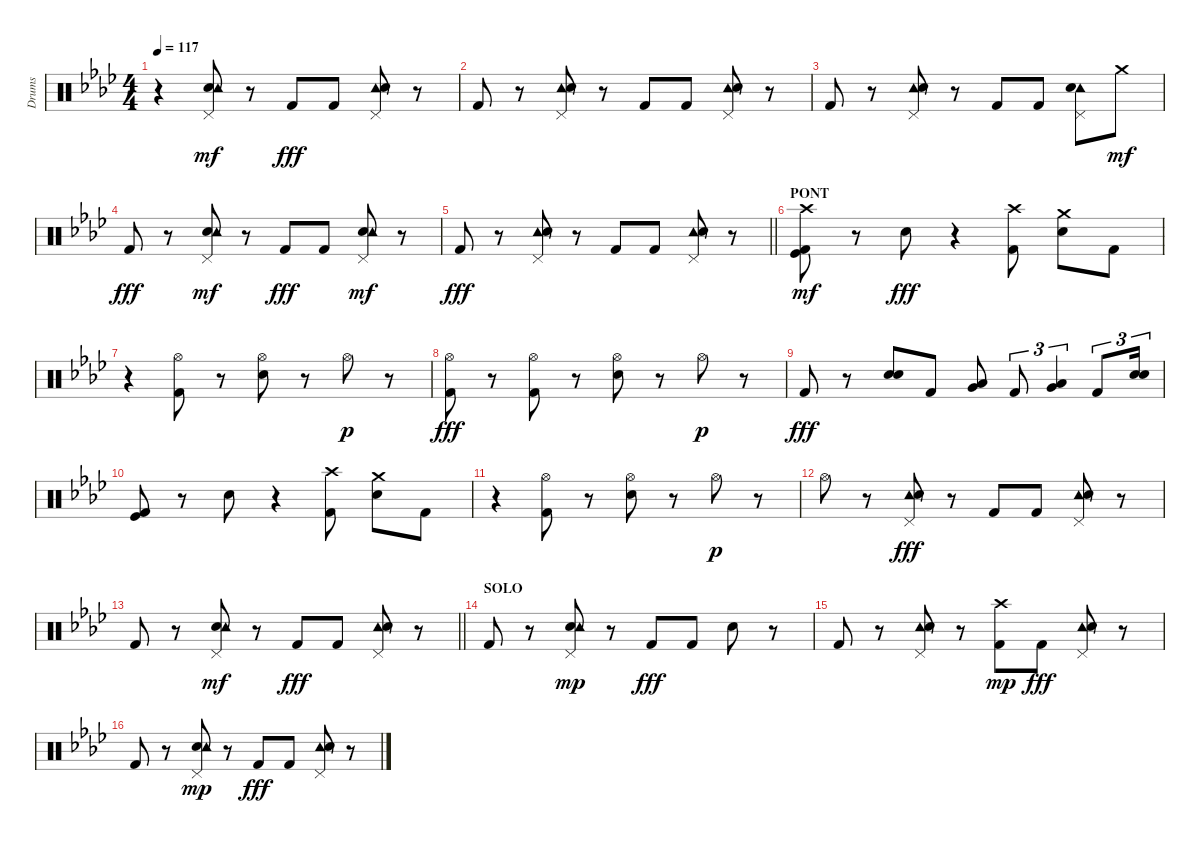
\track ("Drums" "Drums") {instrument percussion}
\staff {score}
\articulation defaults
\ts (4 4)
\tempo 117
\clef neutral
\ks ab
r.4{dy fff} ("Snare (hit) 2" "Tambourine (hit)" "Pedal Hi-Hat (hit)").8{dy mf} r.8 "Kick (hit) 2".8{dy fff} "Kick (hit) 2".8 ("Tambourine (hit)" "Pedal Hi-Hat (hit)" "Snare (hit) 2").8 r.8 |
"Kick (hit) 2".8 r.8 ("Tambourine (hit)" "Pedal Hi-Hat (hit)" "Snare (hit) 2").8 r.8 "Kick (hit) 2".8 "Kick (hit) 2".8 ("Tambourine (hit)" "Pedal Hi-Hat (hit)" "Snare (hit) 2").8 r.8 |
"Kick (hit) 2".8 r.8 ("Tambourine (hit)" "Pedal Hi-Hat (hit)" "Snare (hit) 2").8 r.8 "Kick (hit) 2".8 "Kick (hit) 2".8 ("Tambourine (hit)" "Pedal Hi-Hat (hit)" "Snare (hit) 2").8 "Crash medium (hit)".8{dy mf} |
"Kick (hit) 2".8{dy fff} r.8 ("Snare (hit) 2" "Tambourine (hit)" "Pedal Hi-Hat (hit)").8{dy mf} r.8 "Kick (hit) 2".8{dy fff} "Kick (hit) 2".8 ("Snare (hit) 2" "Tambourine (hit)" "Pedal Hi-Hat (hit)").8{dy mf} r.8 |
\barLineRight lightlight "Kick (hit) 2".8{dy fff}
r.8 ("Tambourine (hit)" "Pedal Hi-Hat (hit)" "Snare (hit) 2").8 r.8 "Kick (hit) 2".8 "Kick (hit) 2".8 ("Tambourine (hit)" "Pedal Hi-Hat (hit)" "Snare (hit) 2").8 r.8 |
\section ("" "PONT")
("Kick (hit) 2" "Kick (hit)" "Crash high (hit)").8{dy mf} r.8 "Snare (hit) 2".8{dy fff} r.4 ("Crash high (hit)" "Kick (hit) 2").8 ("Crash medium (hit)" "Snare (hit) 2").8 "Kick (hit) 2".8 |
r.4 ("Hi-Hat (open)" "Kick (hit) 2").8 r.8 ("Hi-Hat (open)" "Snare (hit) 2").8 r.8 "Hi-Hat (open)".8{dy p} r.8 |
("Hi-Hat (open)" "Kick (hit) 2").8{dy fff} r.8 ("Hi-Hat (open)" "Kick (hit) 2").8 r.8 ("Hi-Hat (open)" "Snare (hit) 2").8 r.8 "Hi-Hat (open)".8{dy p} r.8 |
"Kick (hit) 2".8{dy fff} r.8 ("Electric Snare (hit)" "Snare (hit) 2").8 "Kick (hit) 2".8 ("Low Tom (hit)" "Very Low Tom (hit)").8 "Kick (hit) 2".8{tu (3 2)} ("Very Low Tom (hit)" "Low Floor Tom (hit)").4{tu (3 2)} "Kick (hit) 2".8{tu (3 2)} ("Electric Snare (hit)" "Snare (hit) 2").16{tu (3 2)} |
("Kick (hit) 2" "Kick (hit)").8 r.8 "Snare (hit) 2".8 r.4 ("Crash high (hit)" "Kick (hit) 2").8 ("Crash medium (hit)" "Snare (hit) 2").8 "Kick (hit) 2".8 |
r.4 ("Hi-Hat (open)" "Kick (hit) 2").8 r.8 ("Hi-Hat (open)" "Snare (hit) 2").8 r.8 "Hi-Hat (open)".8{dy p} r.8 |
"Hi-Hat (open)".8 r.8 ("Tambourine (hit)" "Pedal Hi-Hat (hit)" "Snare (hit) 2").8{dy fff} r.8 "Kick (hit) 2".8 "Kick (hit) 2".8 ("Tambourine (hit)" "Pedal Hi-Hat (hit)" "Snare (hit) 2").8 r.8 |
\barLineRight lightlight "Kick (hit) 2".8
r.8 ("Snare (hit) 2" "Tambourine (hit)" "Pedal Hi-Hat (hit)").8{dy mf} r.8 "Kick (hit) 2".8{dy fff} "Kick (hit) 2".8 ("Tambourine (hit)" "Pedal Hi-Hat (hit)" "Snare (hit) 2").8 r.8 |
\section ("" "SOLO")
"Kick (hit) 2".8 r.8 ("Pedal Hi-Hat (hit)" "Snare (hit) 2" "Tambourine (hit)").8{dy mp} r.8 "Kick (hit) 2".8{dy fff} "Kick (hit) 2".8 "Snare (hit) 2".8 r.8 |
"Kick (hit) 2".8 r.8 ("Tambourine (hit)" "Pedal Hi-Hat (hit)" "Snare (hit) 2").8 r.8 ("Kick (hit) 2" "Crash high (hit)").8{dy mp} "Kick (hit) 2".8{dy fff} ("Tambourine (hit)" "Pedal Hi-Hat (hit)" "Snare (hit) 2").8 r.8 |
"Kick (hit) 2".8 r.8 ("Pedal Hi-Hat (hit)" "Snare (hit) 2" "Tambourine (hit)").8{dy mp} r.8 "Kick (hit) 2".8{dy fff} "Kick (hit) 2".8 ("Tambourine (hit)" "Pedal Hi-Hat (hit)" "Snare (hit) 2").8 r.8
